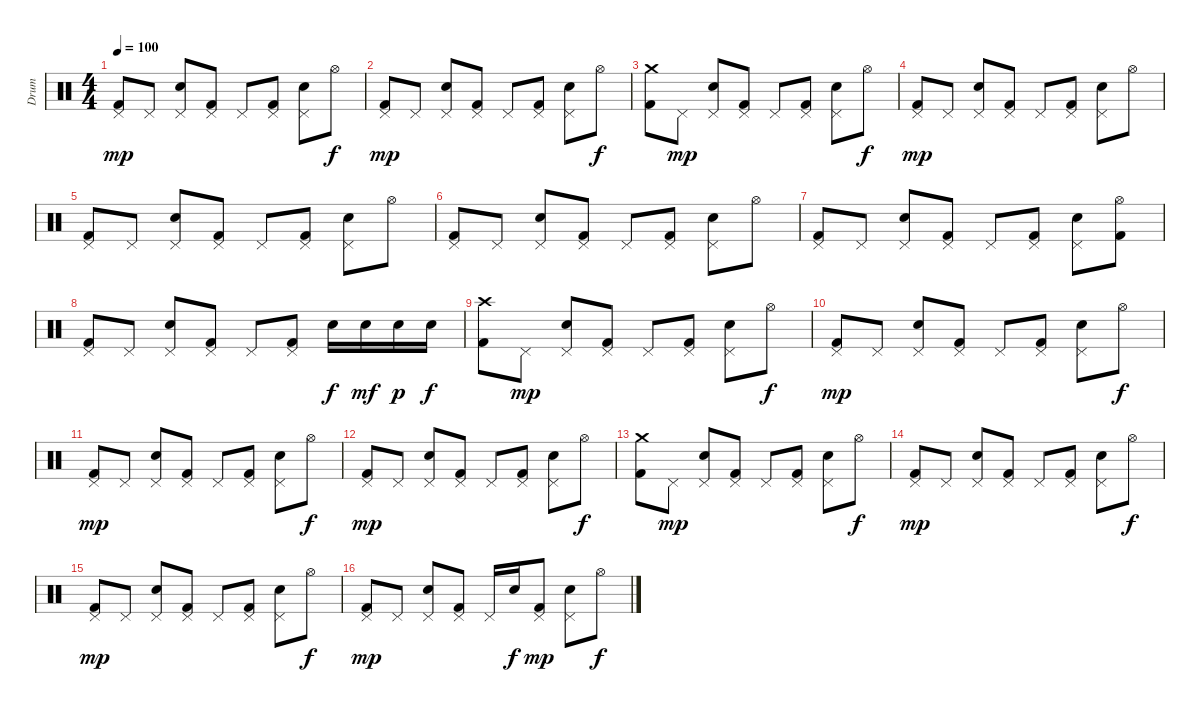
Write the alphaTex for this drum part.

\track ("Drum" "Drum") {instrument percussion}
\staff {score}
\articulation defaults
\ts (4 4)
\tempo 100
\clef neutral
\ks c
("Pedal Hi-Hat (hit)" "Kick (hit) 2").8{dy mp} "Pedal Hi-Hat (hit)".8 ("Pedal Hi-Hat (hit)" "Electric Snare (hit)").8 ("Pedal Hi-Hat (hit)" "Kick (hit) 2").8 "Pedal Hi-Hat (hit)".8 ("Pedal Hi-Hat (hit)" "Kick (hit) 2").8 ("Pedal Hi-Hat (hit)" "Electric Snare (hit)").8 "Hi-Hat (open)".8{dy f} |
("Pedal Hi-Hat (hit)" "Kick (hit) 2").8{dy mp} "Pedal Hi-Hat (hit)".8 ("Pedal Hi-Hat (hit)" "Electric Snare (hit)").8 ("Pedal Hi-Hat (hit)" "Kick (hit) 2").8 "Pedal Hi-Hat (hit)".8 ("Pedal Hi-Hat (hit)" "Kick (hit) 2").8 ("Pedal Hi-Hat (hit)" "Electric Snare (hit)").8 "Hi-Hat (open)".8{dy f} |
("Crash medium (hit)" "Kick (hit) 2").8 "Pedal Hi-Hat (hit)".8{dy mp} ("Pedal Hi-Hat (hit)" "Electric Snare (hit)").8 ("Pedal Hi-Hat (hit)" "Kick (hit) 2").8 "Pedal Hi-Hat (hit)".8 ("Pedal Hi-Hat (hit)" "Kick (hit) 2").8 ("Pedal Hi-Hat (hit)" "Electric Snare (hit)").8 "Hi-Hat (open)".8{dy f} |
("Pedal Hi-Hat (hit)" "Kick (hit) 2").8{dy mp} "Pedal Hi-Hat (hit)".8 ("Pedal Hi-Hat (hit)" "Electric Snare (hit)").8 ("Pedal Hi-Hat (hit)" "Kick (hit) 2").8 "Pedal Hi-Hat (hit)".8 ("Pedal Hi-Hat (hit)" "Kick (hit) 2").8 ("Pedal Hi-Hat (hit)" "Electric Snare (hit)").8 "Hi-Hat (open)".8 |
("Pedal Hi-Hat (hit)" "Kick (hit) 2").8 "Pedal Hi-Hat (hit)".8 ("Pedal Hi-Hat (hit)" "Electric Snare (hit)").8 ("Pedal Hi-Hat (hit)" "Kick (hit) 2").8 "Pedal Hi-Hat (hit)".8 ("Pedal Hi-Hat (hit)" "Kick (hit) 2").8 ("Pedal Hi-Hat (hit)" "Electric Snare (hit)").8 "Hi-Hat (open)".8 |
("Pedal Hi-Hat (hit)" "Kick (hit) 2").8 "Pedal Hi-Hat (hit)".8 ("Pedal Hi-Hat (hit)" "Electric Snare (hit)").8 ("Pedal Hi-Hat (hit)" "Kick (hit) 2").8 "Pedal Hi-Hat (hit)".8 ("Pedal Hi-Hat (hit)" "Kick (hit) 2").8 ("Pedal Hi-Hat (hit)" "Electric Snare (hit)").8 "Hi-Hat (open)".8 |
("Pedal Hi-Hat (hit)" "Kick (hit) 2").8 "Pedal Hi-Hat (hit)".8 ("Pedal Hi-Hat (hit)" "Electric Snare (hit)").8 ("Pedal Hi-Hat (hit)" "Kick (hit) 2").8 "Pedal Hi-Hat (hit)".8 ("Pedal Hi-Hat (hit)" "Kick (hit) 2").8 ("Pedal Hi-Hat (hit)" "Electric Snare (hit)").8 ("Hi-Hat (open)" "Kick (hit) 2").8 |
("Pedal Hi-Hat (hit)" "Kick (hit) 2").8 "Pedal Hi-Hat (hit)".8 ("Pedal Hi-Hat (hit)" "Electric Snare (hit)").8 ("Pedal Hi-Hat (hit)" "Kick (hit) 2").8 "Pedal Hi-Hat (hit)".8 ("Pedal Hi-Hat (hit)" "Kick (hit) 2").8 "Electric Snare (hit)".16{dy f} "Electric Snare (hit)".16{dy mf} "Electric Snare (hit)".16{dy p} "Electric Snare (hit)".16{dy f} |
("Crash high (hit)" "Kick (hit) 2").8 "Pedal Hi-Hat (hit)".8{dy mp} ("Pedal Hi-Hat (hit)" "Electric Snare (hit)").8 ("Pedal Hi-Hat (hit)" "Kick (hit) 2").8 "Pedal Hi-Hat (hit)".8 ("Pedal Hi-Hat (hit)" "Kick (hit) 2").8 ("Pedal Hi-Hat (hit)" "Electric Snare (hit)").8 "Hi-Hat (open)".8{dy f} |
("Pedal Hi-Hat (hit)" "Kick (hit) 2").8{dy mp} "Pedal Hi-Hat (hit)".8 ("Pedal Hi-Hat (hit)" "Electric Snare (hit)").8 ("Pedal Hi-Hat (hit)" "Kick (hit) 2").8 "Pedal Hi-Hat (hit)".8 ("Pedal Hi-Hat (hit)" "Kick (hit) 2").8 ("Pedal Hi-Hat (hit)" "Electric Snare (hit)").8 "Hi-Hat (open)".8{dy f} |
("Pedal Hi-Hat (hit)" "Kick (hit) 2").8{dy mp} "Pedal Hi-Hat (hit)".8 ("Pedal Hi-Hat (hit)" "Electric Snare (hit)").8 ("Pedal Hi-Hat (hit)" "Kick (hit) 2").8 "Pedal Hi-Hat (hit)".8 ("Pedal Hi-Hat (hit)" "Kick (hit) 2").8 ("Pedal Hi-Hat (hit)" "Electric Snare (hit)").8 "Hi-Hat (open)".8{dy f} |
("Pedal Hi-Hat (hit)" "Kick (hit) 2").8{dy mp} "Pedal Hi-Hat (hit)".8 ("Pedal Hi-Hat (hit)" "Electric Snare (hit)").8 ("Pedal Hi-Hat (hit)" "Kick (hit) 2").8 "Pedal Hi-Hat (hit)".8 ("Pedal Hi-Hat (hit)" "Kick (hit) 2").8 ("Pedal Hi-Hat (hit)" "Electric Snare (hit)").8 "Hi-Hat (open)".8{dy f} |
("Crash medium (hit)" "Kick (hit) 2").8 "Pedal Hi-Hat (hit)".8{dy mp} ("Pedal Hi-Hat (hit)" "Electric Snare (hit)").8 ("Pedal Hi-Hat (hit)" "Kick (hit) 2").8 "Pedal Hi-Hat (hit)".8 ("Pedal Hi-Hat (hit)" "Kick (hit) 2").8 ("Pedal Hi-Hat (hit)" "Electric Snare (hit)").8 "Hi-Hat (open)".8{dy f} |
("Pedal Hi-Hat (hit)" "Kick (hit) 2").8{dy mp} "Pedal Hi-Hat (hit)".8 ("Pedal Hi-Hat (hit)" "Electric Snare (hit)").8 ("Pedal Hi-Hat (hit)" "Kick (hit) 2").8 "Pedal Hi-Hat (hit)".8 ("Pedal Hi-Hat (hit)" "Kick (hit) 2").8 ("Pedal Hi-Hat (hit)" "Electric Snare (hit)").8 "Hi-Hat (open)".8{dy f} |
("Pedal Hi-Hat (hit)" "Kick (hit) 2").8{dy mp} "Pedal Hi-Hat (hit)".8 ("Pedal Hi-Hat (hit)" "Electric Snare (hit)").8 ("Pedal Hi-Hat (hit)" "Kick (hit) 2").8 "Pedal Hi-Hat (hit)".8 ("Pedal Hi-Hat (hit)" "Kick (hit) 2").8 ("Pedal Hi-Hat (hit)" "Electric Snare (hit)").8 "Hi-Hat (open)".8{dy f} |
("Pedal Hi-Hat (hit)" "Kick (hit) 2").8{dy mp} "Pedal Hi-Hat (hit)".8 ("Pedal Hi-Hat (hit)" "Electric Snare (hit)").8 ("Pedal Hi-Hat (hit)" "Kick (hit) 2").8 "Pedal Hi-Hat (hit)".16 "Electric Snare (hit)".16{dy f} ("Pedal Hi-Hat (hit)" "Kick (hit) 2").8{dy mp} ("Pedal Hi-Hat (hit)" "Electric Snare (hit)").8 "Hi-Hat (open)".8{dy f}
